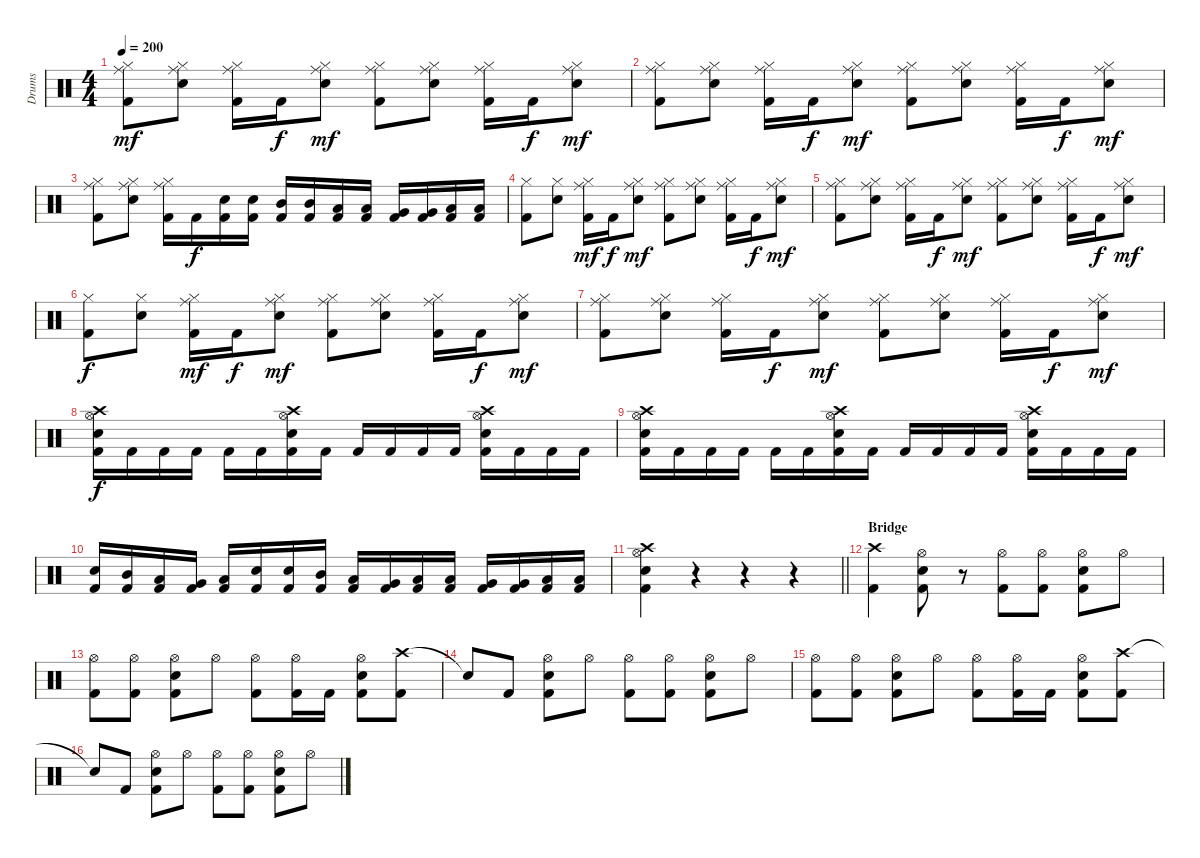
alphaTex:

\track ("Drums" "Drums") {instrument percussion}
\staff {score}
\articulation defaults
\ts (4 4)
\tempo 200
\clef neutral
\ks c
("Hi-Hat (closed)" "Ride (middle)" "Kick (hit) 2").8{dy mf} ("Hi-Hat (closed)" "Ride (middle)" "Snare (hit) 2").8 ("Hi-Hat (closed)" "Ride (middle)" "Kick (hit) 2").16 "Kick (hit) 2".16{dy f} ("Hi-Hat (closed)" "Ride (middle)" "Snare (hit) 2").8{dy mf} ("Hi-Hat (closed)" "Ride (middle)" "Kick (hit) 2").8 ("Hi-Hat (closed)" "Ride (middle)" "Snare (hit) 2").8 ("Hi-Hat (closed)" "Ride (middle)" "Kick (hit) 2").16 "Kick (hit) 2".16{dy f} ("Hi-Hat (closed)" "Ride (middle)" "Snare (hit) 2").8{dy mf} |
("Hi-Hat (closed)" "Ride (middle)" "Kick (hit) 2").8 ("Hi-Hat (closed)" "Ride (middle)" "Snare (hit) 2").8 ("Hi-Hat (closed)" "Ride (middle)" "Kick (hit) 2").16 "Kick (hit) 2".16{dy f} ("Hi-Hat (closed)" "Ride (middle)" "Snare (hit) 2").8{dy mf} ("Hi-Hat (closed)" "Ride (middle)" "Kick (hit) 2").8 ("Hi-Hat (closed)" "Ride (middle)" "Snare (hit) 2").8 ("Hi-Hat (closed)" "Ride (middle)" "Kick (hit) 2").16 "Kick (hit) 2".16{dy f} ("Hi-Hat (closed)" "Ride (middle)" "Snare (hit) 2").8{dy mf} |
("Hi-Hat (closed)" "Ride (middle)" "Kick (hit) 2").8 ("Hi-Hat (closed)" "Ride (middle)" "Snare (hit) 2").8 ("Hi-Hat (closed)" "Ride (middle)" "Kick (hit) 2").16 "Kick (hit) 2".16{dy f} ("Snare (hit) 2" "Kick (hit) 2").16 ("Snare (hit) 2" "Kick (hit) 2").16 ("Mid Tom (hit)" "Kick (hit) 2").16 ("Mid Tom (hit)" "Kick (hit) 2").16 ("Low Tom (hit)" "Kick (hit) 2").16 ("Low Tom (hit)" "Kick (hit) 2").16 ("Very Low Tom (hit)" "Kick (hit) 2").16 ("Very Low Tom (hit)" "Kick (hit) 2").16 ("Low Floor Tom (hit)" "Kick (hit) 2").16 ("Low Floor Tom (hit)" "Kick (hit) 2").16 |
("Hi-Hat (closed)" "Kick (hit) 2").8 ("Hi-Hat (closed)" "Snare (hit) 2").8 ("Hi-Hat (closed)" "Ride (middle)" "Kick (hit) 2").16{dy mf} "Kick (hit) 2".16{dy f} ("Hi-Hat (closed)" "Ride (middle)" "Snare (hit) 2").8{dy mf} ("Hi-Hat (closed)" "Ride (middle)" "Kick (hit) 2").8 ("Hi-Hat (closed)" "Ride (middle)" "Snare (hit) 2").8 ("Hi-Hat (closed)" "Ride (middle)" "Kick (hit) 2").16 "Kick (hit) 2".16{dy f} ("Hi-Hat (closed)" "Ride (middle)" "Snare (hit) 2").8{dy mf} |
("Hi-Hat (closed)" "Ride (middle)" "Kick (hit) 2").8 ("Hi-Hat (closed)" "Ride (middle)" "Snare (hit) 2").8 ("Hi-Hat (closed)" "Ride (middle)" "Kick (hit) 2").16 "Kick (hit) 2".16{dy f} ("Hi-Hat (closed)" "Ride (middle)" "Snare (hit) 2").8{dy mf} ("Hi-Hat (closed)" "Ride (middle)" "Kick (hit) 2").8 ("Hi-Hat (closed)" "Ride (middle)" "Snare (hit) 2").8 ("Hi-Hat (closed)" "Ride (middle)" "Kick (hit) 2").16 "Kick (hit) 2".16{dy f} ("Hi-Hat (closed)" "Ride (middle)" "Snare (hit) 2").8{dy mf} |
("Hi-Hat (closed)" "Kick (hit) 2").8{dy f} ("Hi-Hat (closed)" "Snare (hit) 2").8 ("Hi-Hat (closed)" "Ride (middle)" "Kick (hit) 2").16{dy mf} "Kick (hit) 2".16{dy f} ("Hi-Hat (closed)" "Ride (middle)" "Snare (hit) 2").8{dy mf} ("Hi-Hat (closed)" "Ride (middle)" "Kick (hit) 2").8 ("Hi-Hat (closed)" "Ride (middle)" "Snare (hit) 2").8 ("Hi-Hat (closed)" "Ride (middle)" "Kick (hit) 2").16 "Kick (hit) 2".16{dy f} ("Hi-Hat (closed)" "Ride (middle)" "Snare (hit) 2").8{dy mf} |
("Hi-Hat (closed)" "Ride (middle)" "Kick (hit) 2").8 ("Hi-Hat (closed)" "Ride (middle)" "Snare (hit) 2").8 ("Hi-Hat (closed)" "Ride (middle)" "Kick (hit) 2").16 "Kick (hit) 2".16{dy f} ("Hi-Hat (closed)" "Ride (middle)" "Snare (hit) 2").8{dy mf} ("Hi-Hat (closed)" "Ride (middle)" "Kick (hit) 2").8 ("Hi-Hat (closed)" "Ride (middle)" "Snare (hit) 2").8 ("Hi-Hat (closed)" "Ride (middle)" "Kick (hit) 2").16 "Kick (hit) 2".16{dy f} ("Hi-Hat (closed)" "Ride (middle)" "Snare (hit) 2").8{dy mf} |
("Crash high (hit)" "Hi-Hat (open)" "Snare (hit) 2" "Kick (hit) 2").16{dy f} "Kick (hit) 2".16 "Kick (hit) 2".16 "Kick (hit) 2".16 "Kick (hit) 2".16 "Kick (hit) 2".16 ("Crash high (hit)" "Hi-Hat (open)" "Snare (hit) 2" "Kick (hit) 2").16 "Kick (hit) 2".16 "Kick (hit) 2".16 "Kick (hit) 2".16 "Kick (hit) 2".16 "Kick (hit) 2".16 ("Crash high (hit)" "Hi-Hat (open)" "Snare (hit) 2" "Kick (hit) 2").16 "Kick (hit) 2".16 "Kick (hit) 2".16 "Kick (hit) 2".16 |
("Crash high (hit)" "Hi-Hat (open)" "Snare (hit) 2" "Kick (hit) 2").16 "Kick (hit) 2".16 "Kick (hit) 2".16 "Kick (hit) 2".16 "Kick (hit) 2".16 "Kick (hit) 2".16 ("Crash high (hit)" "Hi-Hat (open)" "Snare (hit) 2" "Kick (hit) 2").16 "Kick (hit) 2".16 "Kick (hit) 2".16 "Kick (hit) 2".16 "Kick (hit) 2".16 "Kick (hit) 2".16 ("Crash high (hit)" "Hi-Hat (open)" "Snare (hit) 2" "Kick (hit) 2").16 "Kick (hit) 2".16 "Kick (hit) 2".16 "Kick (hit) 2".16 |
("Snare (hit) 2" "Kick (hit) 2").16 ("Mid Tom (hit)" "Kick (hit) 2").16 ("Low Tom (hit)" "Kick (hit) 2").16 ("Very Low Tom (hit)" "Kick (hit) 2").16 ("Low Floor Tom (hit)" "Kick (hit) 2").16 ("Snare (hit) 2" "Kick (hit) 2").16 ("Snare (hit) 2" "Kick (hit) 2").16 ("Mid Tom (hit)" "Kick (hit) 2").16 ("Low Tom (hit)" "Kick (hit) 2").16 ("Very Low Tom (hit)" "Kick (hit) 2").16 ("Low Tom (hit)" "Kick (hit) 2").16 ("Low Tom (hit)" "Kick (hit) 2").16 ("Very Low Tom (hit)" "Kick (hit) 2").16 ("Very Low Tom (hit)" "Kick (hit) 2").16 ("Low Floor Tom (hit)" "Kick (hit) 2").16 ("Low Floor Tom (hit)" "Kick (hit) 2").16 |
\barLineRight lightlight
("Crash high (hit)" "Hi-Hat (open)" "Snare (hit) 2" "Kick (hit) 2").4 r.4 r.4 r.4 |
\section ("" "Bridge")
("Crash high (hit)" "Kick (hit) 2").4 ("Hi-Hat (open)" "Snare (hit) 2" "Kick (hit) 2").8 r.8 ("Hi-Hat (open)" "Kick (hit) 2").8 ("Hi-Hat (open)" "Kick (hit) 2").8 ("Hi-Hat (open)" "Snare (hit) 2" "Kick (hit) 2").8 "Hi-Hat (open)".8 |
("Hi-Hat (open)" "Kick (hit) 2").8 ("Hi-Hat (open)" "Kick (hit) 2").8 ("Hi-Hat (open)" "Snare (hit) 2" "Kick (hit) 2").8 "Hi-Hat (open)".8 ("Hi-Hat (open)" "Kick (hit) 2").8 ("Hi-Hat (open)" "Kick (hit) 2").16 "Kick (hit) 2".16 ("Hi-Hat (open)" "Snare (hit) 2" "Kick (hit) 2").8 ("Crash high (hit)" "Kick (hit) 2").8 |
"Snare (hit)"{t}.8 "Kick (hit) 2".8 ("Hi-Hat (open)" "Snare (hit) 2" "Kick (hit) 2").8 "Hi-Hat (open)".8 ("Hi-Hat (open)" "Kick (hit) 2").8 ("Hi-Hat (open)" "Kick (hit) 2").8 ("Hi-Hat (open)" "Snare (hit) 2" "Kick (hit) 2").8 "Hi-Hat (open)".8 |
("Hi-Hat (open)" "Kick (hit) 2").8 ("Hi-Hat (open)" "Kick (hit) 2").8 ("Hi-Hat (open)" "Snare (hit) 2" "Kick (hit) 2").8 "Hi-Hat (open)".8 ("Hi-Hat (open)" "Kick (hit) 2").8 ("Hi-Hat (open)" "Kick (hit) 2").16 "Kick (hit) 2".16 ("Hi-Hat (open)" "Snare (hit) 2" "Kick (hit) 2").8 ("Crash high (hit)" "Kick (hit) 2").8 |
"Snare (hit)"{t}.8 "Kick (hit) 2".8 ("Hi-Hat (open)" "Snare (hit) 2" "Kick (hit) 2").8 "Hi-Hat (open)".8 ("Hi-Hat (open)" "Kick (hit) 2").8 ("Hi-Hat (open)" "Kick (hit) 2").8 ("Hi-Hat (open)" "Snare (hit) 2" "Kick (hit) 2").8 "Hi-Hat (open)".8
